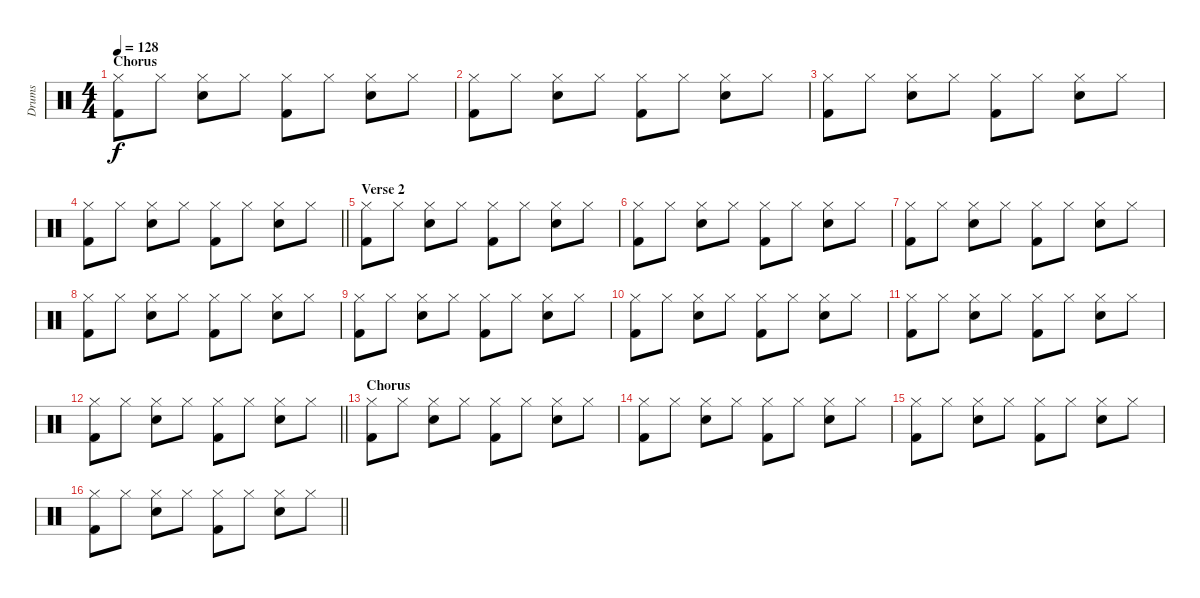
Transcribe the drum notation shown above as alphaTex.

\track ("Drums" "Drums") {instrument percussion}
\staff {score}
\articulation defaults
\ts (4 4)
\section ("" "Chorus")
\tempo 128
\clef neutral
\ks c
("Hi-Hat (closed)" "Kick (hit) 2").8{dy f} "Hi-Hat (closed)".8 ("Hi-Hat (closed)" "Electric Snare (hit)").8 "Hi-Hat (closed)".8 ("Hi-Hat (closed)" "Kick (hit) 2").8 "Hi-Hat (closed)".8 ("Hi-Hat (closed)" "Electric Snare (hit)").8 "Hi-Hat (closed)".8 |
("Hi-Hat (closed)" "Kick (hit) 2").8 "Hi-Hat (closed)".8 ("Hi-Hat (closed)" "Electric Snare (hit)").8 "Hi-Hat (closed)".8 ("Hi-Hat (closed)" "Kick (hit) 2").8 "Hi-Hat (closed)".8 ("Hi-Hat (closed)" "Electric Snare (hit)").8 "Hi-Hat (closed)".8 |
("Hi-Hat (closed)" "Kick (hit) 2").8 "Hi-Hat (closed)".8 ("Hi-Hat (closed)" "Electric Snare (hit)").8 "Hi-Hat (closed)".8 ("Hi-Hat (closed)" "Kick (hit) 2").8 "Hi-Hat (closed)".8 ("Hi-Hat (closed)" "Electric Snare (hit)").8 "Hi-Hat (closed)".8 |
\barLineRight lightlight
("Hi-Hat (closed)" "Kick (hit) 2").8 "Hi-Hat (closed)".8 ("Hi-Hat (closed)" "Electric Snare (hit)").8 "Hi-Hat (closed)".8 ("Hi-Hat (closed)" "Kick (hit) 2").8 "Hi-Hat (closed)".8 ("Hi-Hat (closed)" "Electric Snare (hit)").8 "Hi-Hat (closed)".8 |
\section ("" "Verse 2")
("Hi-Hat (closed)" "Kick (hit) 2").8 "Hi-Hat (closed)".8 ("Hi-Hat (closed)" "Electric Snare (hit)").8 "Hi-Hat (closed)".8 ("Hi-Hat (closed)" "Kick (hit) 2").8 "Hi-Hat (closed)".8 ("Hi-Hat (closed)" "Electric Snare (hit)").8 "Hi-Hat (closed)".8 |
("Hi-Hat (closed)" "Kick (hit) 2").8 "Hi-Hat (closed)".8 ("Hi-Hat (closed)" "Electric Snare (hit)").8 "Hi-Hat (closed)".8 ("Hi-Hat (closed)" "Kick (hit) 2").8 "Hi-Hat (closed)".8 ("Hi-Hat (closed)" "Electric Snare (hit)").8 "Hi-Hat (closed)".8 |
("Hi-Hat (closed)" "Kick (hit) 2").8 "Hi-Hat (closed)".8 ("Hi-Hat (closed)" "Electric Snare (hit)").8 "Hi-Hat (closed)".8 ("Hi-Hat (closed)" "Kick (hit) 2").8 "Hi-Hat (closed)".8 ("Hi-Hat (closed)" "Electric Snare (hit)").8 "Hi-Hat (closed)".8 |
("Hi-Hat (closed)" "Kick (hit) 2").8 "Hi-Hat (closed)".8 ("Hi-Hat (closed)" "Electric Snare (hit)").8 "Hi-Hat (closed)".8 ("Hi-Hat (closed)" "Kick (hit) 2").8 "Hi-Hat (closed)".8 ("Hi-Hat (closed)" "Electric Snare (hit)").8 "Hi-Hat (closed)".8 |
("Hi-Hat (closed)" "Kick (hit) 2").8 "Hi-Hat (closed)".8 ("Hi-Hat (closed)" "Electric Snare (hit)").8 "Hi-Hat (closed)".8 ("Hi-Hat (closed)" "Kick (hit) 2").8 "Hi-Hat (closed)".8 ("Hi-Hat (closed)" "Electric Snare (hit)").8 "Hi-Hat (closed)".8 |
("Hi-Hat (closed)" "Kick (hit) 2").8 "Hi-Hat (closed)".8 ("Hi-Hat (closed)" "Electric Snare (hit)").8 "Hi-Hat (closed)".8 ("Hi-Hat (closed)" "Kick (hit) 2").8 "Hi-Hat (closed)".8 ("Hi-Hat (closed)" "Electric Snare (hit)").8 "Hi-Hat (closed)".8 |
("Hi-Hat (closed)" "Kick (hit) 2").8 "Hi-Hat (closed)".8 ("Hi-Hat (closed)" "Electric Snare (hit)").8 "Hi-Hat (closed)".8 ("Hi-Hat (closed)" "Kick (hit) 2").8 "Hi-Hat (closed)".8 ("Hi-Hat (closed)" "Electric Snare (hit)").8 "Hi-Hat (closed)".8 |
\barLineRight lightlight
("Hi-Hat (closed)" "Kick (hit) 2").8 "Hi-Hat (closed)".8 ("Hi-Hat (closed)" "Electric Snare (hit)").8 "Hi-Hat (closed)".8 ("Hi-Hat (closed)" "Kick (hit) 2").8 "Hi-Hat (closed)".8 ("Hi-Hat (closed)" "Electric Snare (hit)").8 "Hi-Hat (closed)".8 |
\section ("" "Chorus")
("Hi-Hat (closed)" "Kick (hit) 2").8 "Hi-Hat (closed)".8 ("Hi-Hat (closed)" "Electric Snare (hit)").8 "Hi-Hat (closed)".8 ("Hi-Hat (closed)" "Kick (hit) 2").8 "Hi-Hat (closed)".8 ("Hi-Hat (closed)" "Electric Snare (hit)").8 "Hi-Hat (closed)".8 |
("Hi-Hat (closed)" "Kick (hit) 2").8 "Hi-Hat (closed)".8 ("Hi-Hat (closed)" "Electric Snare (hit)").8 "Hi-Hat (closed)".8 ("Hi-Hat (closed)" "Kick (hit) 2").8 "Hi-Hat (closed)".8 ("Hi-Hat (closed)" "Electric Snare (hit)").8 "Hi-Hat (closed)".8 |
("Hi-Hat (closed)" "Kick (hit) 2").8 "Hi-Hat (closed)".8 ("Hi-Hat (closed)" "Electric Snare (hit)").8 "Hi-Hat (closed)".8 ("Hi-Hat (closed)" "Kick (hit) 2").8 "Hi-Hat (closed)".8 ("Hi-Hat (closed)" "Electric Snare (hit)").8 "Hi-Hat (closed)".8 |
\barLineRight lightlight
("Hi-Hat (closed)" "Kick (hit) 2").8 "Hi-Hat (closed)".8 ("Hi-Hat (closed)" "Electric Snare (hit)").8 "Hi-Hat (closed)".8 ("Hi-Hat (closed)" "Kick (hit) 2").8 "Hi-Hat (closed)".8 ("Hi-Hat (closed)" "Electric Snare (hit)").8 "Hi-Hat (closed)".8
